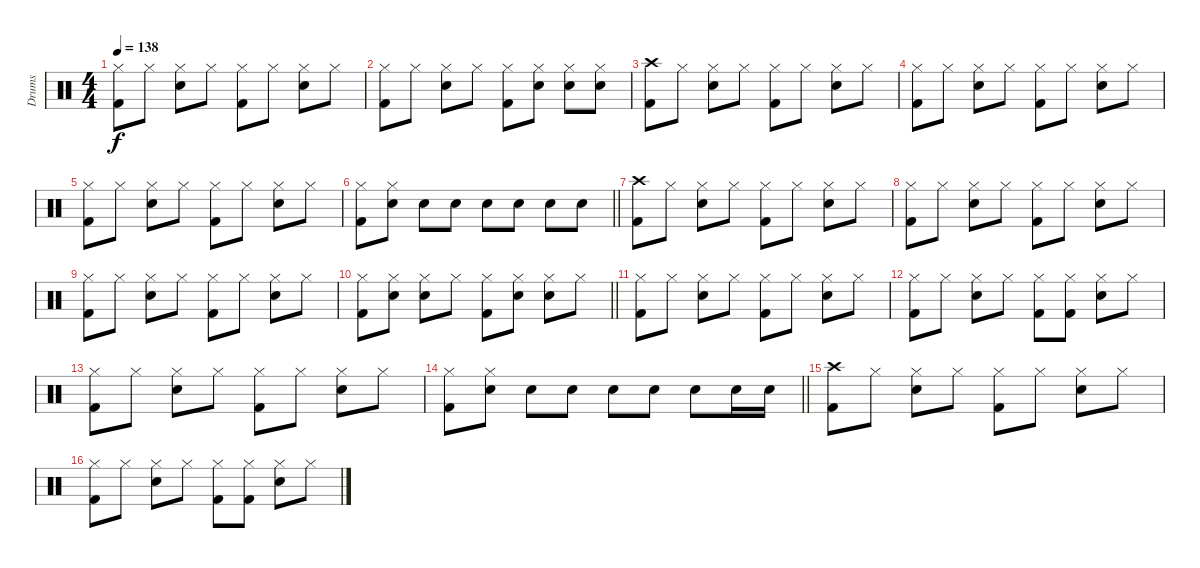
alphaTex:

\track ("Drums" "Drums") {instrument percussion}
\staff {score}
\articulation defaults
\ts (4 4)
\tempo 138
\clef neutral
\ks c
("Hi-Hat (closed)" "Kick (hit) 2").8{dy f} "Hi-Hat (closed)".8 ("Hi-Hat (closed)" "Snare (hit) 2").8 "Hi-Hat (closed)".8 ("Hi-Hat (closed)" "Kick (hit) 2").8 "Hi-Hat (closed)".8 ("Hi-Hat (closed)" "Snare (hit) 2").8 "Hi-Hat (closed)".8 |
("Hi-Hat (closed)" "Kick (hit) 2").8 "Hi-Hat (closed)".8 ("Hi-Hat (closed)" "Snare (hit) 2").8 "Hi-Hat (closed)".8 ("Hi-Hat (closed)" "Kick (hit) 2").8 ("Hi-Hat (closed)" "Snare (hit) 2").8 ("Hi-Hat (closed)" "Snare (hit) 2").8 ("Hi-Hat (closed)" "Snare (hit) 2").8 |
("Crash high (hit)" "Kick (hit) 2").8 "Hi-Hat (closed)".8 ("Hi-Hat (closed)" "Snare (hit) 2").8 "Hi-Hat (closed)".8 ("Hi-Hat (closed)" "Kick (hit) 2").8 "Hi-Hat (closed)".8 ("Hi-Hat (closed)" "Snare (hit) 2").8 "Hi-Hat (closed)".8 |
("Hi-Hat (closed)" "Kick (hit) 2").8 "Hi-Hat (closed)".8 ("Hi-Hat (closed)" "Snare (hit) 2").8 "Hi-Hat (closed)".8 ("Hi-Hat (closed)" "Kick (hit) 2").8 "Hi-Hat (closed)".8 ("Hi-Hat (closed)" "Snare (hit) 2").8 "Hi-Hat (closed)".8 |
("Hi-Hat (closed)" "Kick (hit) 2").8 "Hi-Hat (closed)".8 ("Hi-Hat (closed)" "Snare (hit) 2").8 "Hi-Hat (closed)".8 ("Hi-Hat (closed)" "Kick (hit) 2").8 "Hi-Hat (closed)".8 ("Hi-Hat (closed)" "Snare (hit) 2").8 "Hi-Hat (closed)".8 |
\barLineRight lightlight
("Hi-Hat (closed)" "Kick (hit) 2").8 ("Hi-Hat (closed)" "Snare (hit) 2").8 "Snare (hit) 2".8 "Snare (hit) 2".8 "Snare (hit) 2".8 "Snare (hit) 2".8 "Snare (hit) 2".8 "Snare (hit) 2".8 |
("Crash high (hit)" "Kick (hit) 2").8 "Hi-Hat (closed)".8 ("Hi-Hat (closed)" "Snare (hit) 2").8 "Hi-Hat (closed)".8 ("Hi-Hat (closed)" "Kick (hit) 2").8 "Hi-Hat (closed)".8 ("Hi-Hat (closed)" "Snare (hit) 2").8 "Hi-Hat (closed)".8 |
("Hi-Hat (closed)" "Kick (hit) 2").8 "Hi-Hat (closed)".8 ("Hi-Hat (closed)" "Snare (hit) 2").8 "Hi-Hat (closed)".8 ("Hi-Hat (closed)" "Kick (hit) 2").8 "Hi-Hat (closed)".8 ("Hi-Hat (closed)" "Snare (hit) 2").8 "Hi-Hat (closed)".8 |
("Hi-Hat (closed)" "Kick (hit) 2").8 "Hi-Hat (closed)".8 ("Hi-Hat (closed)" "Snare (hit) 2").8 "Hi-Hat (closed)".8 ("Hi-Hat (closed)" "Kick (hit) 2").8 "Hi-Hat (closed)".8 ("Hi-Hat (closed)" "Snare (hit) 2").8 "Hi-Hat (closed)".8 |
\barLineRight lightlight
("Hi-Hat (closed)" "Kick (hit) 2").8 ("Hi-Hat (closed)" "Snare (hit) 2").8 ("Hi-Hat (closed)" "Snare (hit) 2").8 "Hi-Hat (closed)".8 ("Hi-Hat (closed)" "Kick (hit) 2").8 ("Hi-Hat (closed)" "Snare (hit) 2").8 ("Hi-Hat (closed)" "Snare (hit) 2").8 "Hi-Hat (closed)".8 |
("Hi-Hat (closed)" "Kick (hit) 2").8 "Hi-Hat (closed)".8 ("Hi-Hat (closed)" "Snare (hit) 2").8 "Hi-Hat (closed)".8 ("Hi-Hat (closed)" "Kick (hit) 2").8 "Hi-Hat (closed)".8 ("Hi-Hat (closed)" "Snare (hit) 2").8 "Hi-Hat (closed)".8 |
("Hi-Hat (closed)" "Kick (hit) 2").8 "Hi-Hat (closed)".8 ("Hi-Hat (closed)" "Snare (hit) 2").8 "Hi-Hat (closed)".8 ("Hi-Hat (closed)" "Kick (hit) 2").8 ("Hi-Hat (closed)" "Kick (hit) 2").8 ("Hi-Hat (closed)" "Snare (hit) 2").8 "Hi-Hat (closed)".8 |
("Hi-Hat (closed)" "Kick (hit) 2").8 "Hi-Hat (closed)".8 ("Hi-Hat (closed)" "Snare (hit) 2").8 "Hi-Hat (closed)".8 ("Hi-Hat (closed)" "Kick (hit) 2").8 "Hi-Hat (closed)".8 ("Hi-Hat (closed)" "Snare (hit) 2").8 "Hi-Hat (closed)".8 |
\barLineRight lightlight
("Hi-Hat (closed)" "Kick (hit) 2").8 ("Hi-Hat (closed)" "Snare (hit) 2").8 "Snare (hit) 2".8 "Snare (hit) 2".8 "Snare (hit) 2".8 "Snare (hit) 2".8 "Snare (hit) 2".8 "Snare (hit) 2".16 "Snare (hit) 2".16 |
("Crash high (hit)" "Kick (hit) 2").8 "Hi-Hat (closed)".8 ("Hi-Hat (closed)" "Snare (hit) 2").8 "Hi-Hat (closed)".8 ("Hi-Hat (closed)" "Kick (hit) 2").8 "Hi-Hat (closed)".8 ("Hi-Hat (closed)" "Snare (hit) 2").8 "Hi-Hat (closed)".8 |
("Hi-Hat (closed)" "Kick (hit) 2").8 "Hi-Hat (closed)".8 ("Hi-Hat (closed)" "Snare (hit) 2").8 "Hi-Hat (closed)".8 ("Hi-Hat (closed)" "Kick (hit) 2").8 ("Hi-Hat (closed)" "Kick (hit) 2").8 ("Hi-Hat (closed)" "Snare (hit) 2").8 "Hi-Hat (closed)".8
